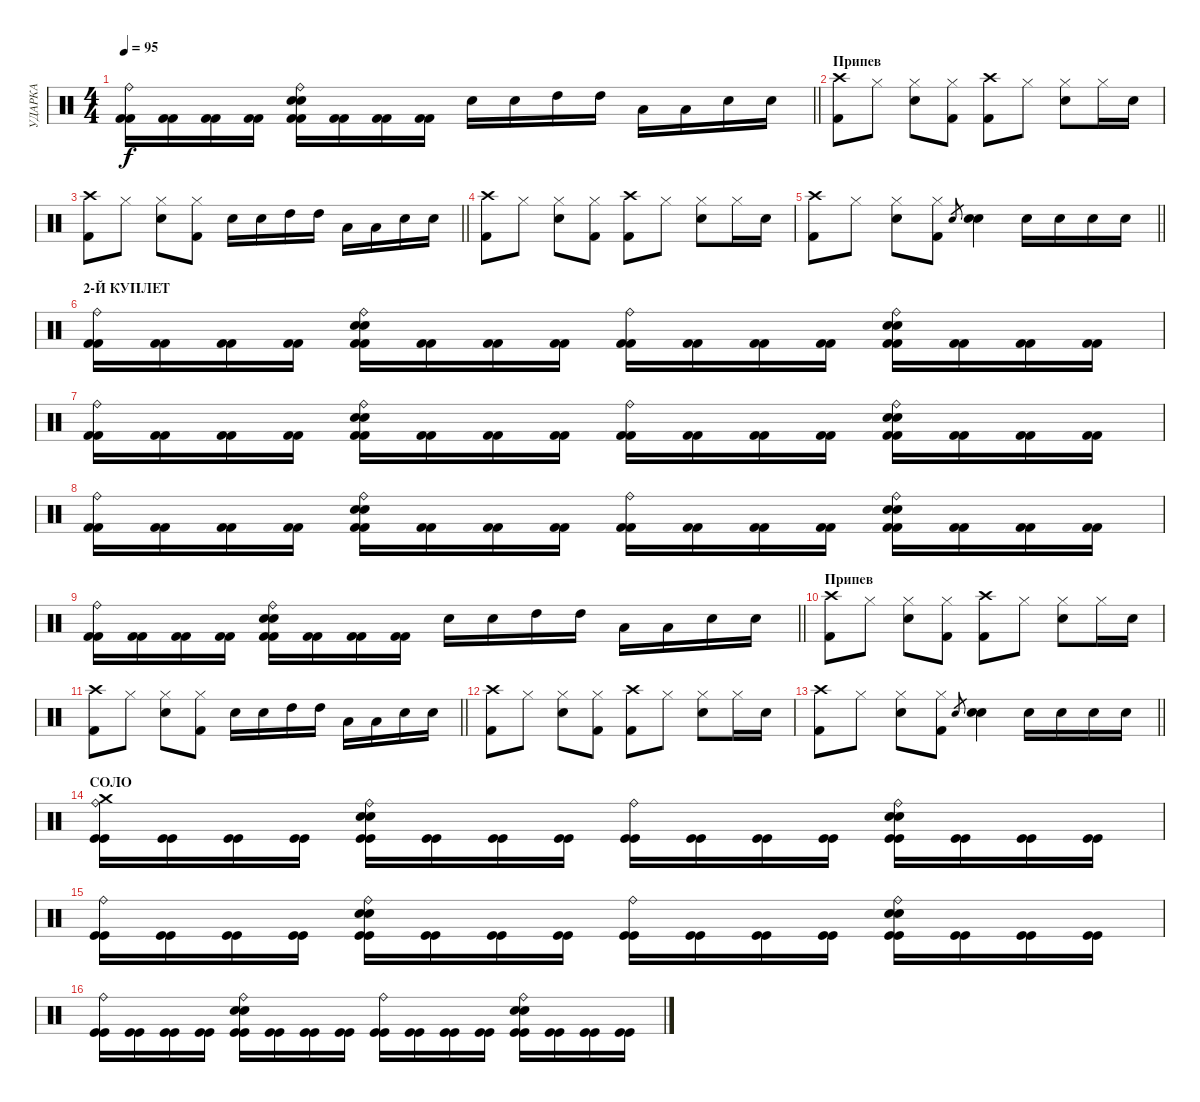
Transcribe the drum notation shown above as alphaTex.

\track ("УДАРКА" "УДАРКА") {solo instrument percussion}
\staff {score}
\articulation defaults
\ts (4 4)
\tempo 95
\clef neutral
\barLineRight lightlight
\ks c
("Ride (bell)" "Kick (hit) 2" "Kick (hit) 2").16{dy f} ("Kick (hit) 2" "Kick (hit) 2").16 ("Kick (hit) 2" "Kick (hit) 2").16 ("Kick (hit) 2" "Kick (hit) 2").16 ("Ride (bell)" "Snare (hit) 2" "Snare (hit) 2" "Kick (hit) 2" "Kick (hit) 2").16 ("Kick (hit) 2" "Kick (hit) 2").16 ("Kick (hit) 2" "Kick (hit) 2").16 ("Kick (hit) 2" "Kick (hit) 2").16 "Electric Snare (hit)".16 "Electric Snare (hit)".16 "High Tom (hit)".16 "High Tom (hit)".16 "Low Tom (hit)".16 "Low Tom (hit)".16 "Electric Snare (hit)".16 "Electric Snare (hit)".16 |
\section ("" "Припев")
("Crash high (hit)" "Kick (hit) 2").8 "Hi-Hat (closed)".8 ("Electric Snare (hit)" "Hi-Hat (closed)").8 ("Kick (hit) 2" "Hi-Hat (closed)").8 ("Kick (hit) 2" "Crash high (hit)").8 "Hi-Hat (closed)".8 ("Electric Snare (hit)" "Hi-Hat (closed)").8 "Hi-Hat (closed)".16 "Electric Snare (hit)".16 |
\barLineRight lightlight
("Crash high (hit)" "Kick (hit) 2").8 "Hi-Hat (closed)".8 ("Electric Snare (hit)" "Hi-Hat (closed)").8 ("Kick (hit) 2" "Hi-Hat (closed)").8 "Electric Snare (hit)".16 "Electric Snare (hit)".16 "High Tom (hit)".16 "High Tom (hit)".16 "Low Tom (hit)".16 "Low Tom (hit)".16 "Electric Snare (hit)".16 "Electric Snare (hit)".16 |
("Crash high (hit)" "Kick (hit) 2").8 "Hi-Hat (closed)".8 ("Electric Snare (hit)" "Hi-Hat (closed)").8 ("Kick (hit) 2" "Hi-Hat (closed)").8 ("Kick (hit) 2" "Crash high (hit)").8 "Hi-Hat (closed)".8 ("Electric Snare (hit)" "Hi-Hat (closed)").8 "Hi-Hat (closed)".16 "Electric Snare (hit)".16 |
\barLineRight lightlight
("Crash high (hit)" "Kick (hit) 2").8 "Hi-Hat (closed)".8 ("Electric Snare (hit)" "Hi-Hat (closed)").8 ("Kick (hit) 2" "Hi-Hat (closed)").8 "Electric Snare (hit)"{sl}.8{gr} ("Electric Snare (hit)" "Electric Snare (hit)").4 "Electric Snare (hit)".16 "Electric Snare (hit)".16 "Electric Snare (hit)".16 "Electric Snare (hit)".16 |
\section ("" "2-Й КУПЛЕТ")
("Ride (bell)" "Kick (hit) 2" "Kick (hit) 2").16 ("Kick (hit) 2" "Kick (hit) 2").16 ("Kick (hit) 2" "Kick (hit) 2").16 ("Kick (hit) 2" "Kick (hit) 2").16 ("Ride (bell)" "Snare (hit) 2" "Snare (hit) 2" "Kick (hit) 2" "Kick (hit) 2").16 ("Kick (hit) 2" "Kick (hit) 2").16 ("Kick (hit) 2" "Kick (hit) 2").16 ("Kick (hit) 2" "Kick (hit) 2").16 ("Ride (bell)" "Kick (hit) 2" "Kick (hit) 2").16 ("Kick (hit) 2" "Kick (hit) 2").16 ("Kick (hit) 2" "Kick (hit) 2").16 ("Kick (hit) 2" "Kick (hit) 2").16 ("Ride (bell)" "Snare (hit) 2" "Snare (hit) 2" "Kick (hit) 2" "Kick (hit) 2").16 ("Kick (hit) 2" "Kick (hit) 2").16 ("Kick (hit) 2" "Kick (hit) 2").16 ("Kick (hit) 2" "Kick (hit) 2").16 |
("Ride (bell)" "Kick (hit) 2" "Kick (hit) 2").16 ("Kick (hit) 2" "Kick (hit) 2").16 ("Kick (hit) 2" "Kick (hit) 2").16 ("Kick (hit) 2" "Kick (hit) 2").16 ("Ride (bell)" "Snare (hit) 2" "Snare (hit) 2" "Kick (hit) 2" "Kick (hit) 2").16 ("Kick (hit) 2" "Kick (hit) 2").16 ("Kick (hit) 2" "Kick (hit) 2").16 ("Kick (hit) 2" "Kick (hit) 2").16 ("Ride (bell)" "Kick (hit) 2" "Kick (hit) 2").16 ("Kick (hit) 2" "Kick (hit) 2").16 ("Kick (hit) 2" "Kick (hit) 2").16 ("Kick (hit) 2" "Kick (hit) 2").16 ("Ride (bell)" "Snare (hit) 2" "Snare (hit) 2" "Kick (hit) 2" "Kick (hit) 2").16 ("Kick (hit) 2" "Kick (hit) 2").16 ("Kick (hit) 2" "Kick (hit) 2").16 ("Kick (hit) 2" "Kick (hit) 2").16 |
("Ride (bell)" "Kick (hit) 2" "Kick (hit) 2").16 ("Kick (hit) 2" "Kick (hit) 2").16 ("Kick (hit) 2" "Kick (hit) 2").16 ("Kick (hit) 2" "Kick (hit) 2").16 ("Ride (bell)" "Snare (hit) 2" "Snare (hit) 2" "Kick (hit) 2" "Kick (hit) 2").16 ("Kick (hit) 2" "Kick (hit) 2").16 ("Kick (hit) 2" "Kick (hit) 2").16 ("Kick (hit) 2" "Kick (hit) 2").16 ("Ride (bell)" "Kick (hit) 2" "Kick (hit) 2").16 ("Kick (hit) 2" "Kick (hit) 2").16 ("Kick (hit) 2" "Kick (hit) 2").16 ("Kick (hit) 2" "Kick (hit) 2").16 ("Ride (bell)" "Snare (hit) 2" "Snare (hit) 2" "Kick (hit) 2" "Kick (hit) 2").16 ("Kick (hit) 2" "Kick (hit) 2").16 ("Kick (hit) 2" "Kick (hit) 2").16 ("Kick (hit) 2" "Kick (hit) 2").16 |
\barLineRight lightlight
("Ride (bell)" "Kick (hit) 2" "Kick (hit) 2").16 ("Kick (hit) 2" "Kick (hit) 2").16 ("Kick (hit) 2" "Kick (hit) 2").16 ("Kick (hit) 2" "Kick (hit) 2").16 ("Ride (bell)" "Snare (hit) 2" "Snare (hit) 2" "Kick (hit) 2" "Kick (hit) 2").16 ("Kick (hit) 2" "Kick (hit) 2").16 ("Kick (hit) 2" "Kick (hit) 2").16 ("Kick (hit) 2" "Kick (hit) 2").16 "Electric Snare (hit)".16 "Electric Snare (hit)".16 "High Tom (hit)".16 "High Tom (hit)".16 "Low Tom (hit)".16 "Low Tom (hit)".16 "Electric Snare (hit)".16 "Electric Snare (hit)".16 |
\section ("" "Припев")
("Crash high (hit)" "Kick (hit) 2").8 "Hi-Hat (closed)".8 ("Electric Snare (hit)" "Hi-Hat (closed)").8 ("Kick (hit) 2" "Hi-Hat (closed)").8 ("Kick (hit) 2" "Crash high (hit)").8 "Hi-Hat (closed)".8 ("Electric Snare (hit)" "Hi-Hat (closed)").8 "Hi-Hat (closed)".16 "Electric Snare (hit)".16 |
\barLineRight lightlight
("Crash high (hit)" "Kick (hit) 2").8 "Hi-Hat (closed)".8 ("Electric Snare (hit)" "Hi-Hat (closed)").8 ("Kick (hit) 2" "Hi-Hat (closed)").8 "Electric Snare (hit)".16 "Electric Snare (hit)".16 "High Tom (hit)".16 "High Tom (hit)".16 "Low Tom (hit)".16 "Low Tom (hit)".16 "Electric Snare (hit)".16 "Electric Snare (hit)".16 |
("Crash high (hit)" "Kick (hit) 2").8 "Hi-Hat (closed)".8 ("Electric Snare (hit)" "Hi-Hat (closed)").8 ("Kick (hit) 2" "Hi-Hat (closed)").8 ("Kick (hit) 2" "Crash high (hit)").8 "Hi-Hat (closed)".8 ("Electric Snare (hit)" "Hi-Hat (closed)").8 "Hi-Hat (closed)".16 "Electric Snare (hit)".16 |
\barLineRight lightlight
("Crash high (hit)" "Kick (hit) 2").8 "Hi-Hat (closed)".8 ("Electric Snare (hit)" "Hi-Hat (closed)").8 ("Kick (hit) 2" "Hi-Hat (closed)").8 "Electric Snare (hit)"{sl}.8{gr} ("Electric Snare (hit)" "Electric Snare (hit)").4 "Electric Snare (hit)".16 "Electric Snare (hit)".16 "Electric Snare (hit)".16 "Electric Snare (hit)".16 |
\section ("" "СОЛО")
("Ride (bell)" "Crash medium (hit)" "Kick (hit)" "Kick (hit)").16 ("Kick (hit)" "Kick (hit)").16 ("Kick (hit)" "Kick (hit)").16 ("Kick (hit)" "Kick (hit)").16 ("Ride (bell)" "Snare (hit) 2" "Snare (hit) 2" "Kick (hit)" "Kick (hit)").16 ("Kick (hit)" "Kick (hit)").16 ("Kick (hit)" "Kick (hit)").16 ("Kick (hit)" "Kick (hit)").16 ("Ride (bell)" "Kick (hit)" "Kick (hit)").16 ("Kick (hit)" "Kick (hit)").16 ("Kick (hit)" "Kick (hit)").16 ("Kick (hit)" "Kick (hit)").16 ("Ride (bell)" "Snare (hit) 2" "Snare (hit) 2" "Kick (hit)" "Kick (hit)").16 ("Kick (hit)" "Kick (hit)").16 ("Kick (hit)" "Kick (hit)").16 ("Kick (hit)" "Kick (hit)").16 |
("Ride (bell)" "Kick (hit)" "Kick (hit)").16 ("Kick (hit)" "Kick (hit)").16 ("Kick (hit)" "Kick (hit)").16 ("Kick (hit)" "Kick (hit)").16 ("Ride (bell)" "Snare (hit) 2" "Snare (hit) 2" "Kick (hit)" "Kick (hit)").16 ("Kick (hit)" "Kick (hit)").16 ("Kick (hit)" "Kick (hit)").16 ("Kick (hit)" "Kick (hit)").16 ("Ride (bell)" "Kick (hit)" "Kick (hit)").16 ("Kick (hit)" "Kick (hit)").16 ("Kick (hit)" "Kick (hit)").16 ("Kick (hit)" "Kick (hit)").16 ("Ride (bell)" "Snare (hit) 2" "Snare (hit) 2" "Kick (hit)" "Kick (hit)").16 ("Kick (hit)" "Kick (hit)").16 ("Kick (hit)" "Kick (hit)").16 ("Kick (hit)" "Kick (hit)").16 |
("Ride (bell)" "Kick (hit)" "Kick (hit)").16 ("Kick (hit)" "Kick (hit)").16 ("Kick (hit)" "Kick (hit)").16 ("Kick (hit)" "Kick (hit)").16 ("Ride (bell)" "Snare (hit) 2" "Snare (hit) 2" "Kick (hit)" "Kick (hit)").16 ("Kick (hit)" "Kick (hit)").16 ("Kick (hit)" "Kick (hit)").16 ("Kick (hit)" "Kick (hit)").16 ("Ride (bell)" "Kick (hit)" "Kick (hit)").16 ("Kick (hit)" "Kick (hit)").16 ("Kick (hit)" "Kick (hit)").16 ("Kick (hit)" "Kick (hit)").16 ("Ride (bell)" "Snare (hit) 2" "Snare (hit) 2" "Kick (hit)" "Kick (hit)").16 ("Kick (hit)" "Kick (hit)").16 ("Kick (hit)" "Kick (hit)").16 ("Kick (hit)" "Kick (hit)").16
